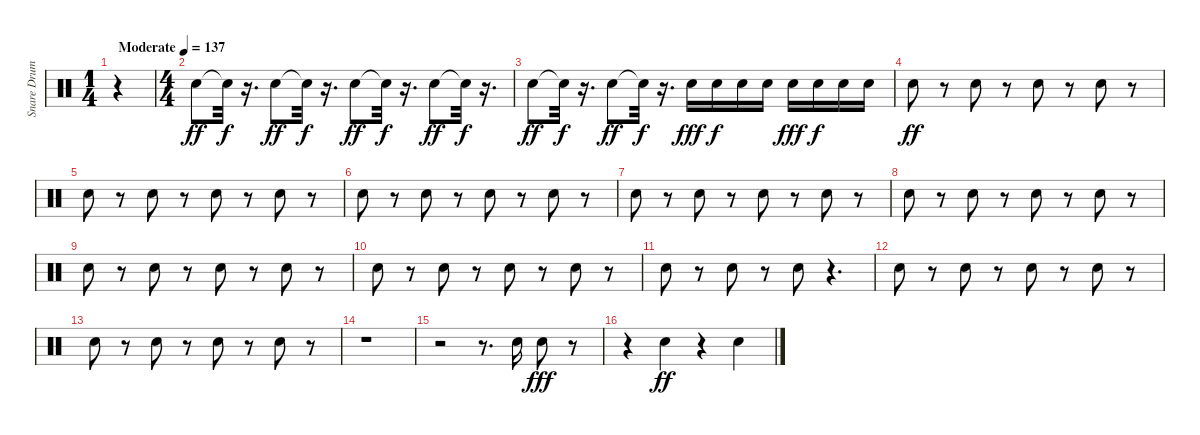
\track ("Snare Drum" "Snare Drum") {instrument percussion}
\staff {score}
\articulation defaults
\ts (1 4)
\tempo (137 "Moderate")
\clef neutral
\ks c
r.4{dy ff} |
\ts (4 4)
"Snare (hit) 2".8 "Snare (hit)"{t}.32{dy f} r.16{d} "Snare (hit) 2".8{dy ff} "Snare (hit)"{t}.32{dy f} r.16{d} "Snare (hit) 2".8{dy ff} "Snare (hit)"{t}.32{dy f} r.16{d} "Snare (hit) 2".8{dy ff} "Snare (hit)"{t}.32{dy f} r.16{d} |
"Snare (hit) 2".8{dy ff} "Snare (hit)"{t}.32{dy f} r.16{d} "Snare (hit) 2".8{dy ff} "Snare (hit)"{t}.32{dy f} r.16{d} "Snare (hit) 2".16{dy fff} "Snare (hit) 2".16{dy f} "Snare (hit) 2".16 "Snare (hit) 2".16 "Snare (hit) 2".16{dy fff} "Snare (hit) 2".16{dy f} "Snare (hit) 2".16 "Snare (hit) 2".16 |
"Snare (hit) 2".8{dy ff} r.8 "Snare (hit) 2".8 r.8 "Snare (hit) 2".8 r.8 "Snare (hit) 2".8 r.8 |
"Snare (hit) 2".8 r.8 "Snare (hit) 2".8 r.8 "Snare (hit) 2".8 r.8 "Snare (hit) 2".8 r.8 |
"Snare (hit) 2".8 r.8 "Snare (hit) 2".8 r.8 "Snare (hit) 2".8 r.8 "Snare (hit) 2".8 r.8 |
"Snare (hit) 2".8 r.8 "Snare (hit) 2".8 r.8 "Snare (hit) 2".8 r.8 "Snare (hit) 2".8 r.8 |
"Snare (hit) 2".8 r.8 "Snare (hit) 2".8 r.8 "Snare (hit) 2".8 r.8 "Snare (hit) 2".8 r.8 |
"Snare (hit) 2".8 r.8 "Snare (hit) 2".8 r.8 "Snare (hit) 2".8 r.8 "Snare (hit) 2".8 r.8 |
"Snare (hit) 2".8 r.8 "Snare (hit) 2".8 r.8 "Snare (hit) 2".8 r.8 "Snare (hit) 2".8 r.8 |
"Snare (hit) 2".8 r.8 "Snare (hit) 2".8 r.8 "Snare (hit) 2".8 r.4{d} |
"Snare (hit) 2".8 r.8 "Snare (hit) 2".8 r.8 "Snare (hit) 2".8 r.8 "Snare (hit) 2".8 r.8 |
"Snare (hit) 2".8 r.8 "Snare (hit) 2".8 r.8 "Snare (hit) 2".8 r.8 "Snare (hit) 2".8 r.8 |
r.1 |
r.2 r.8{d} "Snare (hit) 2".16 "Snare (hit) 2".8{dy fff} r.8 |
r.4 "Snare (hit) 2".4{dy ff} r.4 "Snare (hit) 2".4
